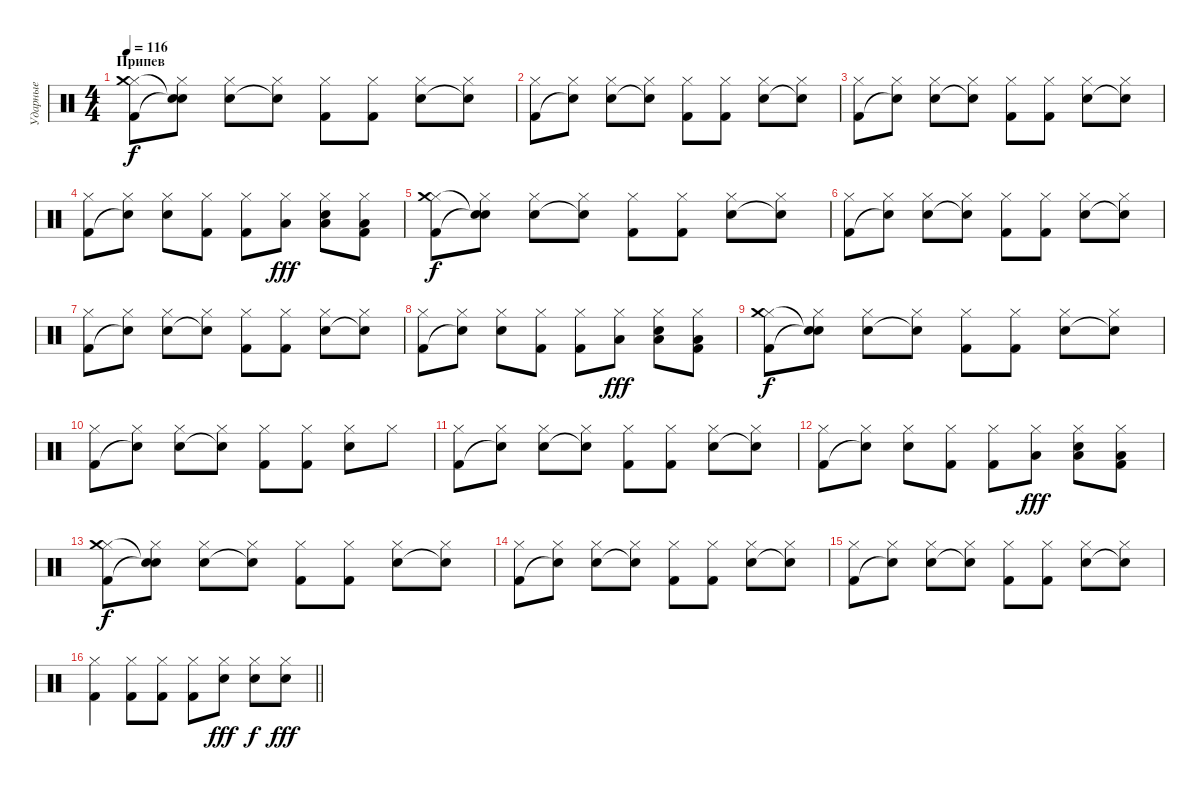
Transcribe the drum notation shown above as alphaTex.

\track ("Ударные" "Ударные") {instrument percussion}
\staff {score}
\articulation defaults
\ts (4 4)
\section ("" "Припев")
\tempo 116
\clef neutral
\ks c
("Hi-Hat (closed)" "Crash medium (hit)" "Kick (hit) 2").8{dy f} ("Hi-Hat (closed)" "Snare (hit)"{t} "Snare (hit)"{t}).8 ("Hi-Hat (closed)" "Snare (hit) 2").8 ("Hi-Hat (closed)" "Snare (hit)"{t}).8 ("Hi-Hat (closed)" "Kick (hit) 2").8 ("Hi-Hat (closed)" "Kick (hit) 2").8 ("Hi-Hat (closed)" "Snare (hit) 2").8 ("Hi-Hat (closed)" "Snare (hit)"{t}).8 |
("Hi-Hat (closed)" "Kick (hit) 2").8 ("Hi-Hat (closed)" "Snare (hit)"{t}).8 ("Hi-Hat (closed)" "Snare (hit) 2").8 ("Hi-Hat (closed)" "Snare (hit)"{t}).8 ("Hi-Hat (closed)" "Kick (hit) 2").8 ("Hi-Hat (closed)" "Kick (hit) 2").8 ("Hi-Hat (closed)" "Snare (hit) 2").8 ("Hi-Hat (closed)" "Snare (hit)"{t}).8 |
("Hi-Hat (closed)" "Kick (hit) 2").8 ("Hi-Hat (closed)" "Snare (hit)"{t}).8 ("Hi-Hat (closed)" "Snare (hit) 2").8 ("Hi-Hat (closed)" "Snare (hit)"{t}).8 ("Hi-Hat (closed)" "Kick (hit) 2").8 ("Hi-Hat (closed)" "Kick (hit) 2").8 ("Hi-Hat (closed)" "Snare (hit) 2").8 ("Hi-Hat (closed)" "Snare (hit)"{t}).8 |
("Hi-Hat (closed)" "Kick (hit) 2").8 ("Hi-Hat (closed)" "Snare (hit)"{t}).8 ("Hi-Hat (closed)" "Snare (hit) 2").8 ("Hi-Hat (closed)" "Kick (hit) 2").8 ("Hi-Hat (closed)" "Kick (hit) 2").8 ("Hi-Hat (closed)" "Low Tom (hit)").8{dy fff} ("Hi-Hat (closed)" "Snare (hit) 2" "Low Tom (hit)").8 ("Hi-Hat (closed)" "Kick (hit) 2" "Low Tom (hit)").8 |
("Hi-Hat (closed)" "Crash medium (hit)" "Kick (hit) 2").8{dy f} ("Hi-Hat (closed)" "Snare (hit)"{t} "Snare (hit)"{t}).8 ("Hi-Hat (closed)" "Snare (hit) 2").8 ("Hi-Hat (closed)" "Snare (hit)"{t}).8 ("Hi-Hat (closed)" "Kick (hit) 2").8 ("Hi-Hat (closed)" "Kick (hit) 2").8 ("Hi-Hat (closed)" "Snare (hit) 2").8 ("Hi-Hat (closed)" "Snare (hit)"{t}).8 |
("Hi-Hat (closed)" "Kick (hit) 2").8 ("Hi-Hat (closed)" "Snare (hit)"{t}).8 ("Hi-Hat (closed)" "Snare (hit) 2").8 ("Hi-Hat (closed)" "Snare (hit)"{t}).8 ("Hi-Hat (closed)" "Kick (hit) 2").8 ("Hi-Hat (closed)" "Kick (hit) 2").8 ("Hi-Hat (closed)" "Snare (hit) 2").8 ("Hi-Hat (closed)" "Snare (hit)"{t}).8 |
("Hi-Hat (closed)" "Kick (hit) 2").8 ("Hi-Hat (closed)" "Snare (hit)"{t}).8 ("Hi-Hat (closed)" "Snare (hit) 2").8 ("Hi-Hat (closed)" "Snare (hit)"{t}).8 ("Hi-Hat (closed)" "Kick (hit) 2").8 ("Hi-Hat (closed)" "Kick (hit) 2").8 ("Hi-Hat (closed)" "Snare (hit) 2").8 ("Hi-Hat (closed)" "Snare (hit)"{t}).8 |
("Hi-Hat (closed)" "Kick (hit) 2").8 ("Hi-Hat (closed)" "Snare (hit)"{t}).8 ("Hi-Hat (closed)" "Snare (hit) 2").8 ("Hi-Hat (closed)" "Kick (hit) 2").8 ("Hi-Hat (closed)" "Kick (hit) 2").8 ("Hi-Hat (closed)" "Low Tom (hit)").8{dy fff} ("Hi-Hat (closed)" "Snare (hit) 2" "Low Tom (hit)").8 ("Hi-Hat (closed)" "Kick (hit) 2" "Low Tom (hit)").8 |
("Hi-Hat (closed)" "Crash medium (hit)" "Kick (hit) 2").8{dy f} ("Hi-Hat (closed)" "Snare (hit)"{t} "Snare (hit)"{t}).8 ("Hi-Hat (closed)" "Snare (hit) 2").8 ("Hi-Hat (closed)" "Snare (hit)"{t}).8 ("Hi-Hat (closed)" "Kick (hit) 2").8 ("Hi-Hat (closed)" "Kick (hit) 2").8 ("Hi-Hat (closed)" "Snare (hit) 2").8 ("Hi-Hat (closed)" "Snare (hit)"{t}).8 |
("Hi-Hat (closed)" "Kick (hit) 2").8 ("Hi-Hat (closed)" "Snare (hit)"{t}).8 ("Hi-Hat (closed)" "Snare (hit) 2").8 ("Hi-Hat (closed)" "Snare (hit)"{t}).8 ("Hi-Hat (closed)" "Kick (hit) 2").8 ("Hi-Hat (closed)" "Kick (hit) 2").8 ("Hi-Hat (closed)" "Snare (hit) 2").8 "Hi-Hat (closed)".8 |
("Hi-Hat (closed)" "Kick (hit) 2").8 ("Hi-Hat (closed)" "Snare (hit)"{t}).8 ("Hi-Hat (closed)" "Snare (hit) 2").8 ("Hi-Hat (closed)" "Snare (hit)"{t}).8 ("Hi-Hat (closed)" "Kick (hit) 2").8 ("Hi-Hat (closed)" "Kick (hit) 2").8 ("Hi-Hat (closed)" "Snare (hit) 2").8 ("Hi-Hat (closed)" "Snare (hit)"{t}).8 |
("Hi-Hat (closed)" "Kick (hit) 2").8 ("Hi-Hat (closed)" "Snare (hit)"{t}).8 ("Hi-Hat (closed)" "Snare (hit) 2").8 ("Hi-Hat (closed)" "Kick (hit) 2").8 ("Hi-Hat (closed)" "Kick (hit) 2").8 ("Hi-Hat (closed)" "Low Tom (hit)").8{dy fff} ("Hi-Hat (closed)" "Snare (hit) 2" "Low Tom (hit)").8 ("Hi-Hat (closed)" "Kick (hit) 2" "Low Tom (hit)").8 |
("Hi-Hat (closed)" "Crash medium (hit)" "Kick (hit) 2").8{dy f} ("Hi-Hat (closed)" "Snare (hit)"{t} "Snare (hit)"{t}).8 ("Hi-Hat (closed)" "Snare (hit) 2").8 ("Hi-Hat (closed)" "Snare (hit)"{t}).8 ("Hi-Hat (closed)" "Kick (hit) 2").8 ("Hi-Hat (closed)" "Kick (hit) 2").8 ("Hi-Hat (closed)" "Snare (hit) 2").8 ("Hi-Hat (closed)" "Snare (hit)"{t}).8 |
("Hi-Hat (closed)" "Kick (hit) 2").8 ("Hi-Hat (closed)" "Snare (hit)"{t}).8 ("Hi-Hat (closed)" "Snare (hit) 2").8 ("Hi-Hat (closed)" "Snare (hit)"{t}).8 ("Hi-Hat (closed)" "Kick (hit) 2").8 ("Hi-Hat (closed)" "Kick (hit) 2").8 ("Hi-Hat (closed)" "Snare (hit) 2").8 ("Hi-Hat (closed)" "Snare (hit)"{t}).8 |
("Hi-Hat (closed)" "Kick (hit) 2").8 ("Hi-Hat (closed)" "Snare (hit)"{t}).8 ("Hi-Hat (closed)" "Snare (hit) 2").8 ("Hi-Hat (closed)" "Snare (hit)"{t}).8 ("Hi-Hat (closed)" "Kick (hit) 2").8 ("Hi-Hat (closed)" "Kick (hit) 2").8 ("Hi-Hat (closed)" "Snare (hit) 2").8 ("Hi-Hat (closed)" "Snare (hit)"{t}).8 |
\barLineRight lightlight
("Hi-Hat (closed)" "Kick (hit) 2").4 ("Hi-Hat (closed)" "Kick (hit) 2").8 ("Hi-Hat (closed)" "Kick (hit) 2").8 ("Hi-Hat (closed)" "Kick (hit) 2").8 ("Hi-Hat (closed)" "Snare (hit) 2").8{dy fff} ("Hi-Hat (closed)" "Snare (hit) 2").8{dy f} ("Hi-Hat (closed)" "Snare (hit) 2").8{dy fff}
